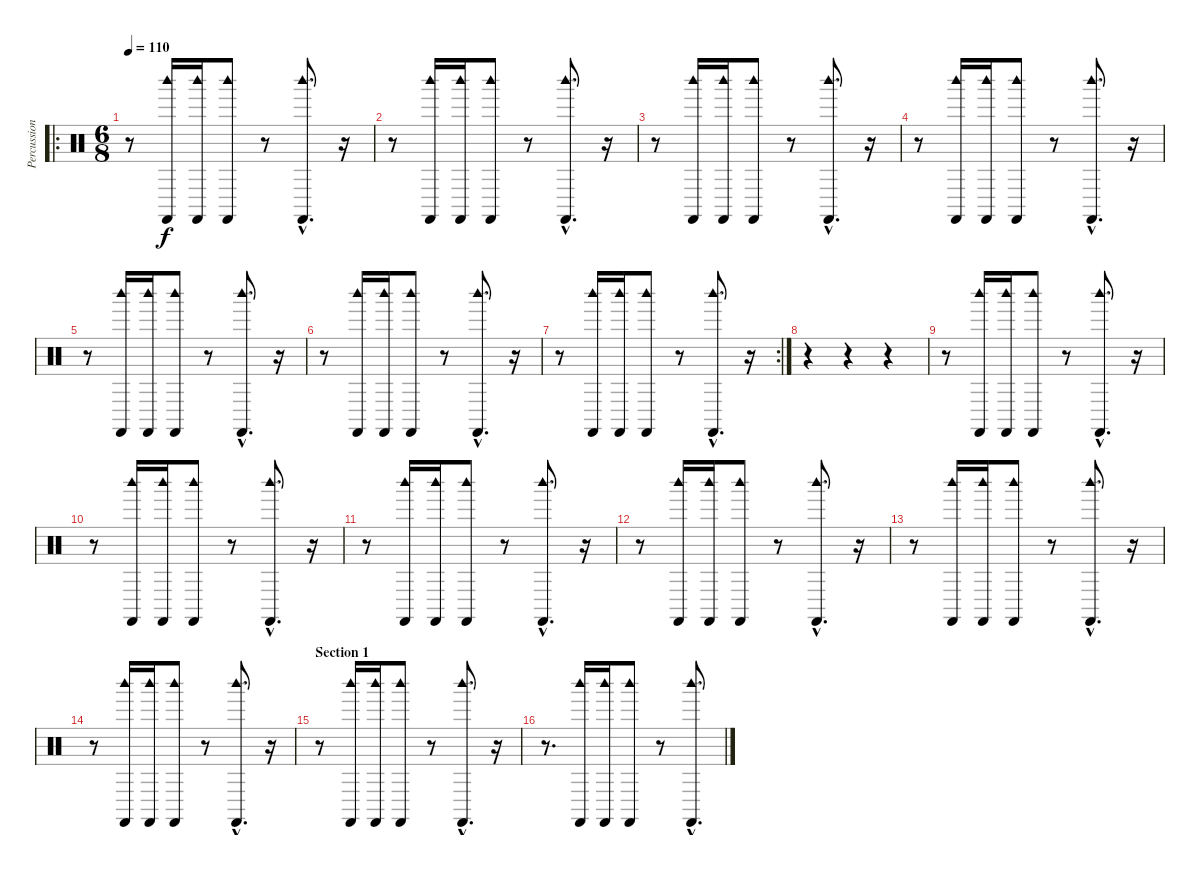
\track ("Percussion" "Percussion") {instrument percussion}
\staff {score}
\articulation defaults
\ro
\ts (6 8)
\tempo 110
\clef neutral
\ks c
r.8{dy f} ("Woodblock high (hit)" "Castanets (hit)").16 ("Woodblock high (hit)" "Castanets (hit)").16 ("Woodblock high (hit)" "Castanets (hit)").8 r.8 ("Woodblock high (hit)"{hac} "Castanets (hit)"{hac}).8{d} r.16 |
r.8 ("Woodblock high (hit)" "Castanets (hit)").16 ("Woodblock high (hit)" "Castanets (hit)").16 ("Woodblock high (hit)" "Castanets (hit)").8 r.8 ("Woodblock high (hit)"{hac} "Castanets (hit)"{hac}).8{d} r.16 |
r.8 ("Woodblock high (hit)" "Castanets (hit)").16 ("Woodblock high (hit)" "Castanets (hit)").16 ("Woodblock high (hit)" "Castanets (hit)").8 r.8 ("Woodblock high (hit)"{hac} "Castanets (hit)"{hac}).8{d} r.16 |
r.8 ("Woodblock high (hit)" "Castanets (hit)").16 ("Woodblock high (hit)" "Castanets (hit)").16 ("Woodblock high (hit)" "Castanets (hit)").8 r.8 ("Woodblock high (hit)"{hac} "Castanets (hit)"{hac}).8{d} r.16 |
r.8 ("Woodblock high (hit)" "Castanets (hit)").16 ("Woodblock high (hit)" "Castanets (hit)").16 ("Woodblock high (hit)" "Castanets (hit)").8 r.8 ("Woodblock high (hit)"{hac} "Castanets (hit)"{hac}).8{d} r.16 |
r.8 ("Woodblock high (hit)" "Castanets (hit)").16 ("Woodblock high (hit)" "Castanets (hit)").16 ("Woodblock high (hit)" "Castanets (hit)").8 r.8 ("Woodblock high (hit)"{hac} "Castanets (hit)"{hac}).8{d} r.16 |
\rc 2
r.8 ("Woodblock high (hit)" "Castanets (hit)").16 ("Woodblock high (hit)" "Castanets (hit)").16 ("Woodblock high (hit)" "Castanets (hit)").8 r.8 ("Woodblock high (hit)"{hac} "Castanets (hit)"{hac}).8{d} r.16 |
r.4 r.4 r.4 |
r.8 ("Woodblock high (hit)" "Castanets (hit)").16 ("Woodblock high (hit)" "Castanets (hit)").16 ("Woodblock high (hit)" "Castanets (hit)").8 r.8 ("Woodblock high (hit)"{hac} "Castanets (hit)"{hac}).8{d} r.16 |
r.8 ("Woodblock high (hit)" "Castanets (hit)").16 ("Woodblock high (hit)" "Castanets (hit)").16 ("Woodblock high (hit)" "Castanets (hit)").8 r.8 ("Woodblock high (hit)"{hac} "Castanets (hit)"{hac}).8{d} r.16 |
r.8 ("Woodblock high (hit)" "Castanets (hit)").16 ("Woodblock high (hit)" "Castanets (hit)").16 ("Woodblock high (hit)" "Castanets (hit)").8 r.8 ("Woodblock high (hit)"{hac} "Castanets (hit)"{hac}).8{d} r.16 |
r.8 ("Woodblock high (hit)" "Castanets (hit)").16 ("Woodblock high (hit)" "Castanets (hit)").16 ("Woodblock high (hit)" "Castanets (hit)").8 r.8 ("Woodblock high (hit)"{hac} "Castanets (hit)"{hac}).8{d} r.16 |
r.8 ("Woodblock high (hit)" "Castanets (hit)").16 ("Woodblock high (hit)" "Castanets (hit)").16 ("Woodblock high (hit)" "Castanets (hit)").8 r.8 ("Woodblock high (hit)"{hac} "Castanets (hit)"{hac}).8{d} r.16 |
r.8 ("Woodblock high (hit)" "Castanets (hit)").16 ("Woodblock high (hit)" "Castanets (hit)").16 ("Woodblock high (hit)" "Castanets (hit)").8 r.8 ("Woodblock high (hit)"{hac} "Castanets (hit)"{hac}).8{d} r.16 |
\section ("" "Section 1")
r.8 ("Woodblock high (hit)" "Castanets (hit)").16 ("Woodblock high (hit)" "Castanets (hit)").16 ("Woodblock high (hit)" "Castanets (hit)").8 r.8 ("Woodblock high (hit)"{hac} "Castanets (hit)"{hac}).8{d} r.16 |
r.8{d} ("Woodblock high (hit)" "Castanets (hit)").16 ("Woodblock high (hit)" "Castanets (hit)").16 ("Woodblock high (hit)" "Castanets (hit)").8 r.8 ("Woodblock high (hit)"{hac} "Castanets (hit)"{hac}).8{d}
